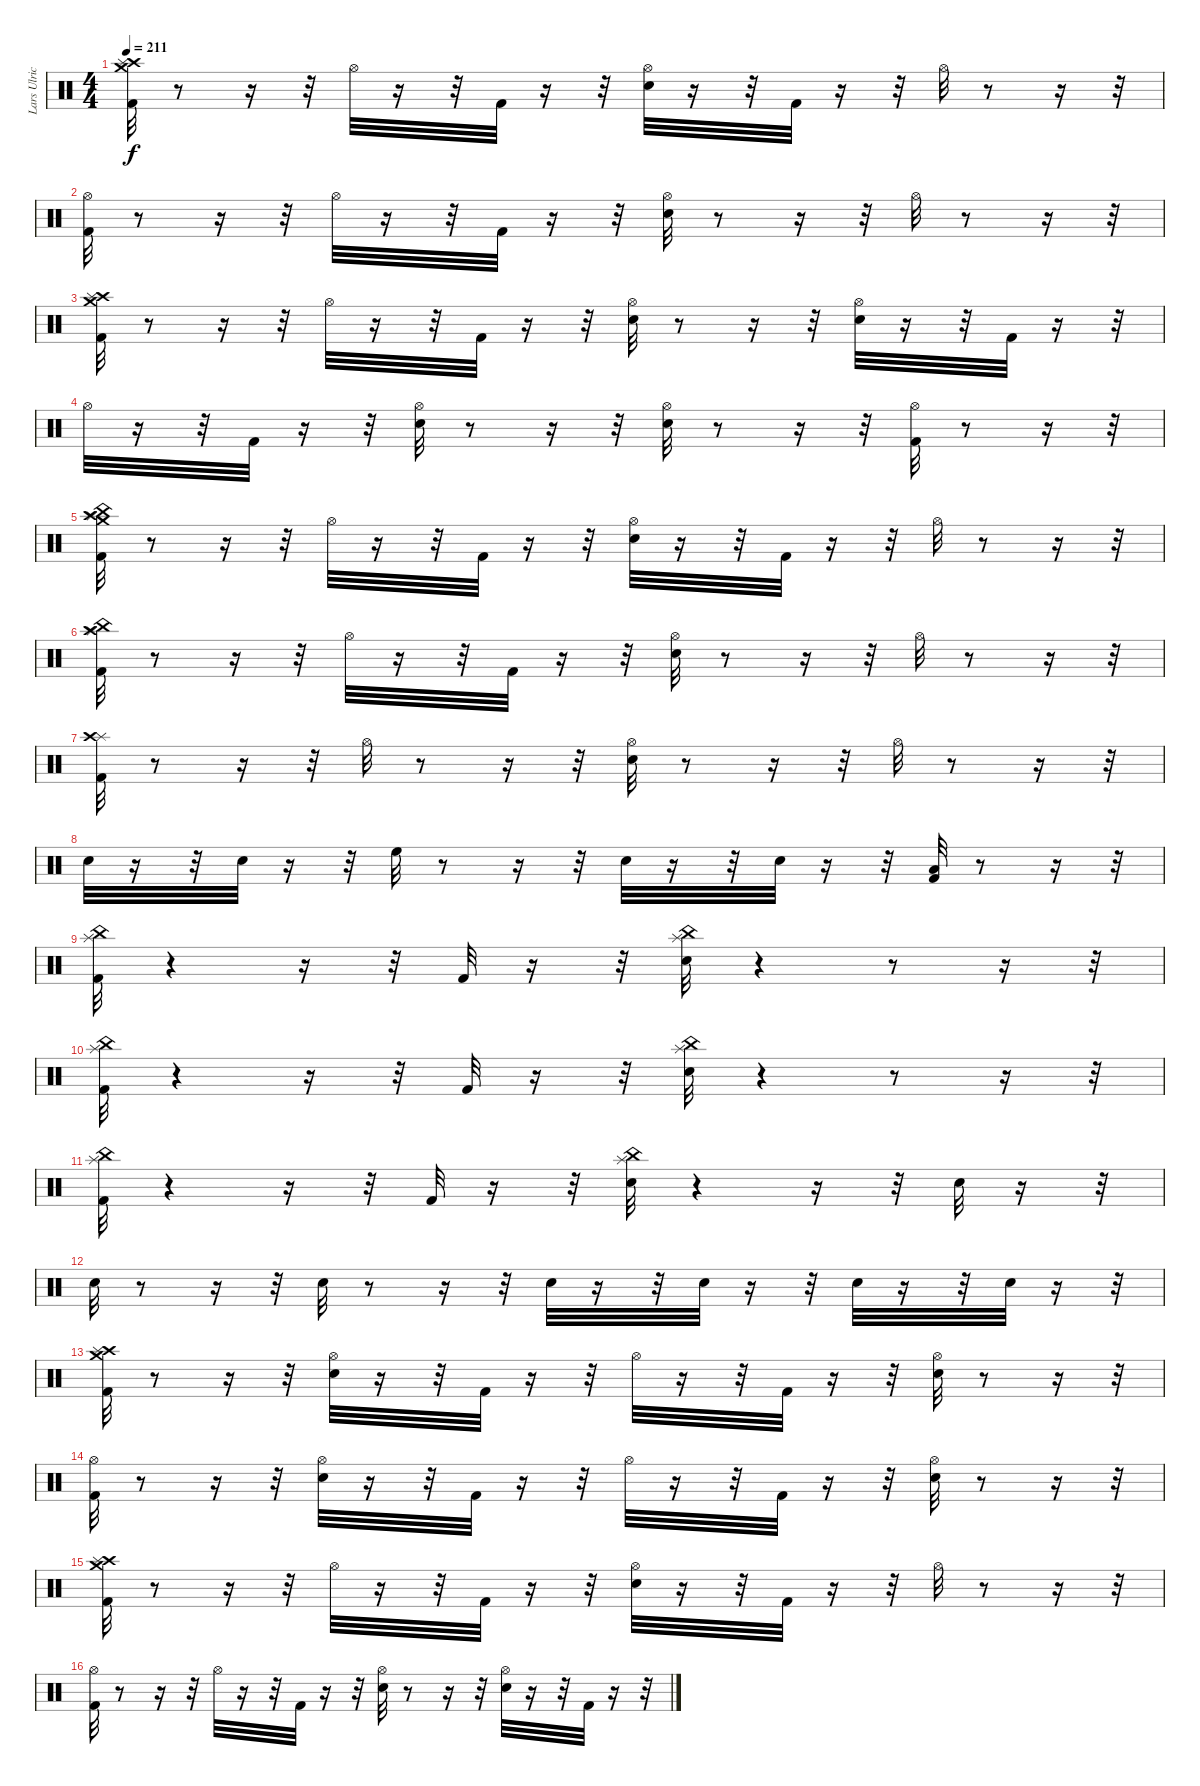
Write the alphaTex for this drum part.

\track ("Lars Ulrich (Drums)" "Lars Ulric") {instrument percussion}
\staff {score}
\articulation defaults
\ts (4 4)
\tempo 211
\clef neutral
\ks c
("Crash high (hit)" "Crash medium (hit)" "Splash (hit)" "Kick (hit) 2").32{dy f} r.8 r.16 r.32 "Hi-Hat (open)".32 r.16 r.32 "Kick (hit) 2".32 r.16 r.32 ("Hi-Hat (open)" "Snare (hit) 2").32 r.16 r.32 "Kick (hit) 2".32 r.16 r.32 "Hi-Hat (open)".32 r.8 r.16 r.32 |
("Hi-Hat (open)" "Kick (hit) 2").32 r.8 r.16 r.32 "Hi-Hat (open)".32 r.16 r.32 "Kick (hit) 2".32 r.16 r.32 ("Hi-Hat (open)" "Snare (hit) 2").32 r.8 r.16 r.32 "Hi-Hat (open)".32 r.8 r.16 r.32 |
("Crash high (hit)" "Splash (hit)" "Crash medium (hit)" "Kick (hit) 2").32 r.8 r.16 r.32 "Hi-Hat (open)".32 r.16 r.32 "Kick (hit) 2".32 r.16 r.32 ("Hi-Hat (open)" "Snare (hit) 2").32 r.8 r.16 r.32 ("Hi-Hat (open)" "Snare (hit) 2").32 r.16 r.32 "Kick (hit) 2".32 r.16 r.32 |
"Hi-Hat (open)".32 r.16 r.32 "Kick (hit) 2".32 r.16 r.32 ("Hi-Hat (open)" "Snare (hit) 2").32 r.8 r.16 r.32 ("Hi-Hat (open)" "Snare (hit) 2").32 r.8 r.16 r.32 ("Hi-Hat (open)" "Kick (hit) 2").32 r.8 r.16 r.32 |
("China (hit)" "Kick (hit) 2" "Crash high (hit)" "Splash (hit)" "Crash medium (hit)").32 r.8 r.16 r.32 "Hi-Hat (open)".32 r.16 r.32 "Kick (hit) 2".32 r.16 r.32 ("Hi-Hat (open)" "Snare (hit) 2").32 r.16 r.32 "Kick (hit) 2".32 r.16 r.32 "Hi-Hat (open)".32 r.8 r.16 r.32 |
("China (hit)" "Splash (hit)" "Crash high (hit)" "Kick (hit) 2").32 r.8 r.16 r.32 "Hi-Hat (open)".32 r.16 r.32 "Kick (hit) 2".32 r.16 r.32 ("Hi-Hat (open)" "Snare (hit) 2").32 r.8 r.16 r.32 "Hi-Hat (open)".32 r.8 r.16 r.32 |
("Kick (hit) 2" "Splash (hit)" "Crash high (hit)").32 r.8 r.16 r.32 "Hi-Hat (open)".32 r.8 r.16 r.32 ("Hi-Hat (open)" "Snare (hit) 2").32 r.8 r.16 r.32 "Hi-Hat (open)".32 r.8 r.16 r.32 |
"Snare (hit) 2".32 r.16 r.32 "Snare (hit) 2".32 r.16 r.32 "High Floor Tom (hit)".32 r.8 r.16 r.32 "Snare (hit) 2".32 r.16 r.32 "Snare (hit) 2".32 r.16 r.32 ("Low Floor Tom (hit)" "Kick (hit) 2").32 r.8 r.16 r.32 |
("Kick (hit) 2" "China (hit)" "Splash (hit)").32 r.4 r.16 r.32 "Kick (hit) 2".32 r.16 r.32 ("Snare (hit) 2" "China (hit)" "Splash (hit)").32 r.4 r.8 r.16 r.32 |
("Kick (hit) 2" "China (hit)" "Splash (hit)").32 r.4 r.16 r.32 "Kick (hit) 2".32 r.16 r.32 ("Snare (hit) 2" "China (hit)" "Splash (hit)").32 r.4 r.8 r.16 r.32 |
("Kick (hit) 2" "China (hit)" "Splash (hit)").32 r.4 r.16 r.32 "Kick (hit) 2".32 r.16 r.32 ("Snare (hit) 2" "China (hit)" "Splash (hit)").32 r.4 r.16 r.32 "Snare (hit) 2".32 r.16 r.32 |
"Snare (hit) 2".32 r.8 r.16 r.32 "Snare (hit) 2".32 r.8 r.16 r.32 "Snare (hit) 2".32 r.16 r.32 "Snare (hit) 2".32 r.16 r.32 "Snare (hit) 2".32 r.16 r.32 "Snare (hit) 2".32 r.16 r.32 |
("Kick (hit) 2" "Crash high (hit)" "Crash medium (hit)" "Splash (hit)").32 r.8 r.16 r.32 ("Snare (hit) 2" "Hi-Hat (open)").32 r.16 r.32 "Kick (hit) 2".32 r.16 r.32 "Hi-Hat (open)".32 r.16 r.32 "Kick (hit) 2".32 r.16 r.32 ("Snare (hit) 2" "Hi-Hat (open)").32 r.8 r.16 r.32 |
("Kick (hit) 2" "Hi-Hat (open)").32 r.8 r.16 r.32 ("Snare (hit) 2" "Hi-Hat (open)").32 r.16 r.32 "Kick (hit) 2".32 r.16 r.32 "Hi-Hat (open)".32 r.16 r.32 "Kick (hit) 2".32 r.16 r.32 ("Snare (hit) 2" "Hi-Hat (open)").32 r.8 r.16 r.32 |
("Crash high (hit)" "Crash medium (hit)" "Splash (hit)" "Kick (hit) 2").32 r.8 r.16 r.32 "Hi-Hat (open)".32 r.16 r.32 "Kick (hit) 2".32 r.16 r.32 ("Hi-Hat (open)" "Snare (hit) 2").32 r.16 r.32 "Kick (hit) 2".32 r.16 r.32 "Hi-Hat (open)".32 r.8 r.16 r.32 |
("Hi-Hat (open)" "Kick (hit) 2").32 r.8 r.16 r.32 "Hi-Hat (open)".32 r.16 r.32 "Kick (hit) 2".32 r.16 r.32 ("Hi-Hat (open)" "Snare (hit) 2").32 r.8 r.16 r.32 ("Snare (hit) 2" "Hi-Hat (open)").32 r.16 r.32 "Kick (hit) 2".32 r.16 r.32
